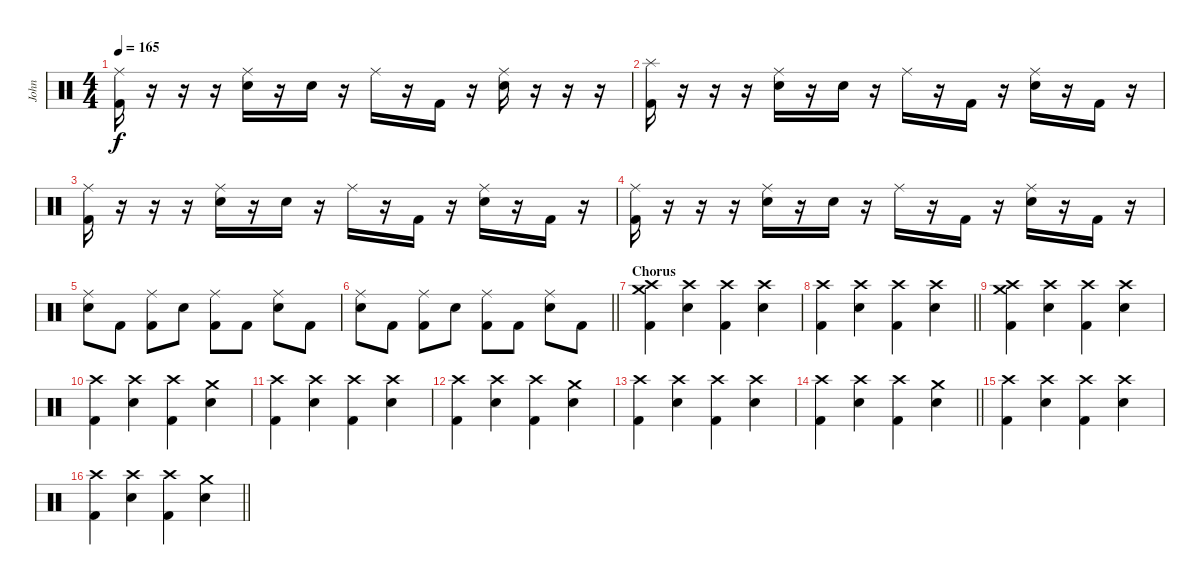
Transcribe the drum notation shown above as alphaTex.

\track ("John" "John") {instrument percussion}
\staff {score}
\articulation defaults
\ts (4 4)
\tempo 165
\clef neutral
\ks c
("Ride (middle)" "Kick (hit) 2").16{dy f} r.16 r.16 r.16 ("Ride (middle)" "Electric Snare (hit)").16 r.16 "Electric Snare (hit)".16 r.16 "Ride (middle)".16 r.16 "Kick (hit) 2".16 r.16 ("Ride (middle)" "Electric Snare (hit)").16 r.16 r.16 r.16 |
("Splash (hit)" "Kick (hit) 2").16 r.16 r.16 r.16 ("Ride (middle)" "Electric Snare (hit)").16 r.16 "Electric Snare (hit)".16 r.16 "Ride (middle)".16 r.16 "Kick (hit) 2".16 r.16 ("Ride (middle)" "Electric Snare (hit)").16 r.16 "Kick (hit) 2".16 r.16 |
("Ride (middle)" "Kick (hit) 2").16 r.16 r.16 r.16 ("Ride (middle)" "Electric Snare (hit)").16 r.16 "Electric Snare (hit)".16 r.16 "Ride (middle)".16 r.16 "Kick (hit) 2".16 r.16 ("Ride (middle)" "Electric Snare (hit)").16 r.16 "Kick (hit) 2".16 r.16 |
("Ride (middle)" "Kick (hit) 2").16 r.16 r.16 r.16 ("Ride (middle)" "Electric Snare (hit)").16 r.16 "Electric Snare (hit)".16 r.16 "Ride (middle)".16 r.16 "Kick (hit) 2".16 r.16 ("Ride (middle)" "Electric Snare (hit)").16 r.16 "Kick (hit) 2".16 r.16 |
("Ride (middle)" "Electric Snare (hit)").8 "Kick (hit) 2".8 ("Ride (middle)" "Kick (hit) 2").8 "Electric Snare (hit)".8 ("Ride (middle)" "Kick (hit) 2").8 "Kick (hit) 2".8 ("Ride (middle)" "Electric Snare (hit)").8 "Kick (hit) 2".8 |
\barLineRight lightlight
("Ride (middle)" "Electric Snare (hit)").8 "Kick (hit) 2".8 ("Ride (middle)" "Kick (hit) 2").8 "Electric Snare (hit)".8 ("Ride (middle)" "Kick (hit) 2").8 "Kick (hit) 2".8 ("Ride (middle)" "Electric Snare (hit)").8 "Kick (hit) 2".8 |
\section ("" "Chorus")
("Crash medium (hit)" "Crash high (hit)" "Kick (hit) 2").4 ("Crash high (hit)" "Electric Snare (hit)").4 ("Crash high (hit)" "Kick (hit) 2").4 ("Crash high (hit)" "Electric Snare (hit)").4 |
\barLineRight lightlight
("Crash high (hit)" "Kick (hit) 2").4 ("Crash high (hit)" "Electric Snare (hit)").4 ("Crash high (hit)" "Kick (hit) 2").4 ("Crash high (hit)" "Electric Snare (hit)").4 |
\section ("" "")
("Crash medium (hit)" "Crash high (hit)" "Kick (hit) 2").4 ("Crash high (hit)" "Electric Snare (hit)").4 ("Crash high (hit)" "Kick (hit) 2").4 ("Crash high (hit)" "Electric Snare (hit)").4 |
("Crash high (hit)" "Kick (hit) 2").4 ("Crash high (hit)" "Electric Snare (hit)").4 ("Crash high (hit)" "Kick (hit) 2").4 ("Crash medium (hit)" "Electric Snare (hit)").4 |
("Crash high (hit)" "Kick (hit) 2").4 ("Crash high (hit)" "Electric Snare (hit)").4 ("Crash high (hit)" "Kick (hit) 2").4 ("Crash high (hit)" "Electric Snare (hit)").4 |
("Crash high (hit)" "Kick (hit) 2").4 ("Crash high (hit)" "Electric Snare (hit)").4 ("Crash high (hit)" "Kick (hit) 2").4 ("Crash medium (hit)" "Electric Snare (hit)").4 |
("Crash high (hit)" "Kick (hit) 2").4 ("Crash high (hit)" "Electric Snare (hit)").4 ("Crash high (hit)" "Kick (hit) 2").4 ("Crash high (hit)" "Electric Snare (hit)").4 |
\barLineRight lightlight
("Crash high (hit)" "Kick (hit) 2").4 ("Crash high (hit)" "Electric Snare (hit)").4 ("Crash high (hit)" "Kick (hit) 2").4 ("Crash medium (hit)" "Electric Snare (hit)").4 |
("Crash high (hit)" "Kick (hit) 2").4 ("Crash high (hit)" "Electric Snare (hit)").4 ("Crash high (hit)" "Kick (hit) 2").4 ("Crash high (hit)" "Electric Snare (hit)").4 |
\barLineRight lightlight
("Crash high (hit)" "Kick (hit) 2").4 ("Crash high (hit)" "Electric Snare (hit)").4 ("Crash high (hit)" "Kick (hit) 2").4 ("Crash medium (hit)" "Electric Snare (hit)").4
